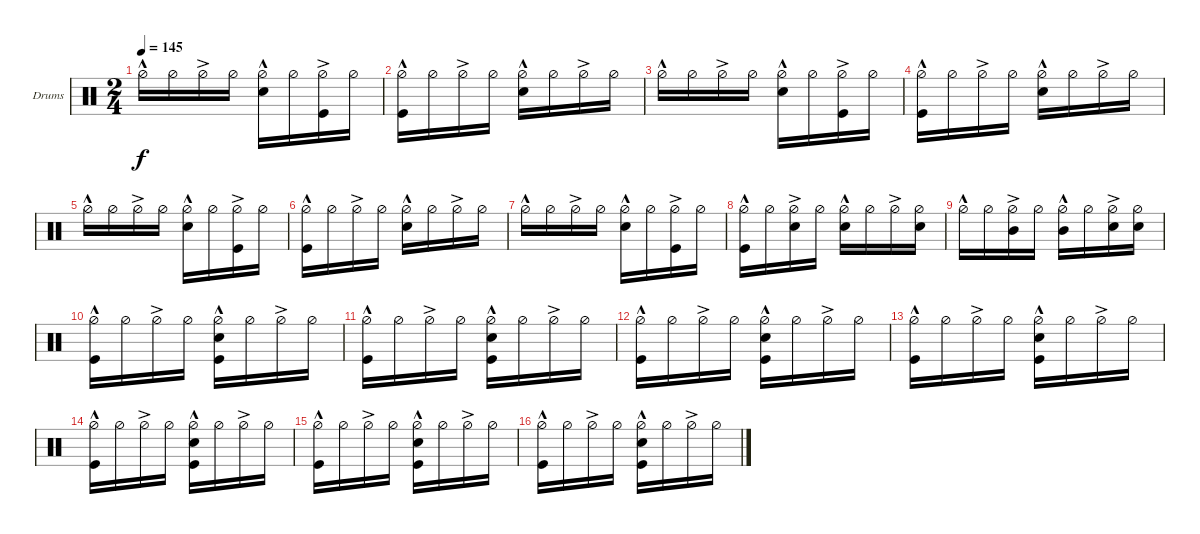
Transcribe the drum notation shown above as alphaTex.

\bracketExtendMode groupsimilarinstruments
\firstSystemTrackNameOrientation horizontal
\otherSystemsTrackNameOrientation horizontal
\track ("Drumkit" "Drums") {instrument percussion}
\staff {score}
\articulation defaults
\ts (2 4)
\tempo 145
\clef neutral
\ks c "Hi-Hat (half)"{hac}.16{dy f} "Hi-Hat (half)".16 "Hi-Hat (half)"{ac}.16 "Hi-Hat (half)".16
("Hi-Hat (half)"{hac} "Snare (hit) 2").16 "Hi-Hat (half)".16 ("Hi-Hat (half)"{ac} "Kick (hit)").16 "Hi-Hat (half)".16 |
("Hi-Hat (half)"{hac} "Kick (hit)").16 "Hi-Hat (half)".16 "Hi-Hat (half)"{ac}.16 "Hi-Hat (half)".16 ("Hi-Hat (half)"{hac} "Snare (hit) 2").16 "Hi-Hat (half)".16 "Hi-Hat (half)"{ac}.16 "Hi-Hat (half)".16 |
"Hi-Hat (half)"{hac}.16 "Hi-Hat (half)".16 "Hi-Hat (half)"{ac}.16 "Hi-Hat (half)".16 ("Hi-Hat (half)"{hac} "Snare (hit) 2").16 "Hi-Hat (half)".16 ("Hi-Hat (half)"{ac} "Kick (hit)").16 "Hi-Hat (half)".16 |
("Hi-Hat (half)"{hac} "Kick (hit)").16 "Hi-Hat (half)".16 "Hi-Hat (half)"{ac}.16 "Hi-Hat (half)".16 ("Hi-Hat (half)"{hac} "Snare (hit) 2").16 "Hi-Hat (half)".16 "Hi-Hat (half)"{ac}.16 "Hi-Hat (half)".16 |
"Hi-Hat (half)"{hac}.16 "Hi-Hat (half)".16 "Hi-Hat (half)"{ac}.16 "Hi-Hat (half)".16 ("Hi-Hat (half)"{hac} "Snare (hit) 2").16 "Hi-Hat (half)".16 ("Hi-Hat (half)"{ac} "Kick (hit)").16 "Hi-Hat (half)".16 |
("Hi-Hat (half)"{hac} "Kick (hit)").16 "Hi-Hat (half)".16 "Hi-Hat (half)"{ac}.16 "Hi-Hat (half)".16 ("Hi-Hat (half)"{hac} "Snare (hit) 2").16 "Hi-Hat (half)".16 "Hi-Hat (half)"{ac}.16 "Hi-Hat (half)".16 |
"Hi-Hat (half)"{hac}.16 "Hi-Hat (half)".16 "Hi-Hat (half)"{ac}.16 "Hi-Hat (half)".16 ("Hi-Hat (half)"{hac} "Snare (hit) 2").16 "Hi-Hat (half)".16 ("Hi-Hat (half)"{ac} "Kick (hit)").16 "Hi-Hat (half)".16 |
("Hi-Hat (half)"{hac} "Kick (hit)").16 "Hi-Hat (half)".16 ("Hi-Hat (half)"{ac} "Snare (hit) 2").16 "Hi-Hat (half)".16 ("Hi-Hat (half)"{hac} "Snare (hit) 2").16 "Hi-Hat (half)".16 "Hi-Hat (half)"{ac}.16 ("Hi-Hat (half)" "Snare (hit) 2").16 |
"Hi-Hat (half)"{hac}.16 "Hi-Hat (half)".16 ("Hi-Hat (half)"{ac} "Mid Tom (hit)").16 "Hi-Hat (half)".16 ("Hi-Hat (half)"{hac} "Mid Tom (hit)").16 "Hi-Hat (half)".16 ("Hi-Hat (half)"{ac} "Snare (hit) 2").16 ("Hi-Hat (half)" "Snare (hit) 2").16 |
("Hi-Hat (half)"{hac} "Kick (hit)").16 "Hi-Hat (half)".16 "Hi-Hat (half)"{ac}.16 "Hi-Hat (half)".16 ("Hi-Hat (half)"{hac} "Snare (hit) 2" "Kick (hit)").16 "Hi-Hat (half)".16 "Hi-Hat (half)"{ac}.16 "Hi-Hat (half)".16 |
("Hi-Hat (half)"{hac} "Kick (hit)").16 "Hi-Hat (half)".16 "Hi-Hat (half)"{ac}.16 "Hi-Hat (half)".16 ("Hi-Hat (half)"{hac} "Snare (hit) 2" "Kick (hit)").16 "Hi-Hat (half)".16 "Hi-Hat (half)"{ac}.16 "Hi-Hat (half)".16 |
("Hi-Hat (half)"{hac} "Kick (hit)").16 "Hi-Hat (half)".16 "Hi-Hat (half)"{ac}.16 "Hi-Hat (half)".16 ("Hi-Hat (half)"{hac} "Snare (hit) 2" "Kick (hit)").16 "Hi-Hat (half)".16 "Hi-Hat (half)"{ac}.16 "Hi-Hat (half)".16 |
("Hi-Hat (half)"{hac} "Kick (hit)").16 "Hi-Hat (half)".16 "Hi-Hat (half)"{ac}.16 "Hi-Hat (half)".16 ("Hi-Hat (half)"{hac} "Snare (hit) 2" "Kick (hit)").16 "Hi-Hat (half)".16 "Hi-Hat (half)"{ac}.16 "Hi-Hat (half)".16 |
("Hi-Hat (half)"{hac} "Kick (hit)").16 "Hi-Hat (half)".16 "Hi-Hat (half)"{ac}.16 "Hi-Hat (half)".16 ("Hi-Hat (half)"{hac} "Snare (hit) 2" "Kick (hit)").16 "Hi-Hat (half)".16 "Hi-Hat (half)"{ac}.16 "Hi-Hat (half)".16 |
("Hi-Hat (half)"{hac} "Kick (hit)").16 "Hi-Hat (half)".16 "Hi-Hat (half)"{ac}.16 "Hi-Hat (half)".16 ("Hi-Hat (half)"{hac} "Snare (hit) 2" "Kick (hit)").16 "Hi-Hat (half)".16 "Hi-Hat (half)"{ac}.16 "Hi-Hat (half)".16 |
("Hi-Hat (half)"{hac} "Kick (hit)").16 "Hi-Hat (half)".16 "Hi-Hat (half)"{ac}.16 "Hi-Hat (half)".16 ("Hi-Hat (half)"{hac} "Snare (hit) 2" "Kick (hit)").16 "Hi-Hat (half)".16 "Hi-Hat (half)"{ac}.16 "Hi-Hat (half)".16
